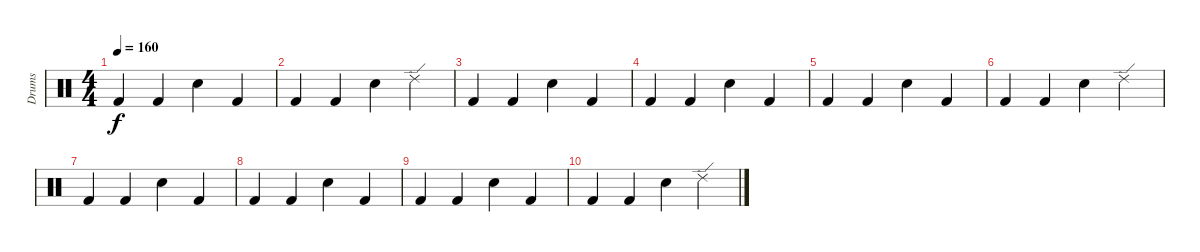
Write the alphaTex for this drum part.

\track ("Drums" "Drums") {instrument percussion}
\staff {score}
\articulation defaults
\ts (4 4)
\tempo 160
\clef neutral
\ks c "Kick (hit) 2".4{dy f} "Kick (hit) 2".4 "Snare (hit) 2".4 "Kick (hit) 2".4
|
"Kick (hit) 2".4 "Kick (hit) 2".4 "Snare (hit) 2".4 "Ride (edge) 2".4 |
"Kick (hit) 2".4 "Kick (hit) 2".4 "Snare (hit) 2".4 "Kick (hit) 2".4 |
"Kick (hit) 2".4 "Kick (hit) 2".4 "Snare (hit) 2".4 "Kick (hit) 2".4 |
"Kick (hit) 2".4 "Kick (hit) 2".4 "Snare (hit) 2".4 "Kick (hit) 2".4 |
"Kick (hit) 2".4 "Kick (hit) 2".4 "Snare (hit) 2".4 "Ride (edge) 2".4 |
"Kick (hit) 2".4 "Kick (hit) 2".4 "Snare (hit) 2".4 "Kick (hit) 2".4 |
"Kick (hit) 2".4 "Kick (hit) 2".4 "Snare (hit) 2".4 "Kick (hit) 2".4 |
"Kick (hit) 2".4 "Kick (hit) 2".4 "Snare (hit) 2".4 "Kick (hit) 2".4 |
"Kick (hit) 2".4 "Kick (hit) 2".4 "Snare (hit) 2".4 "Ride (edge) 2".4
